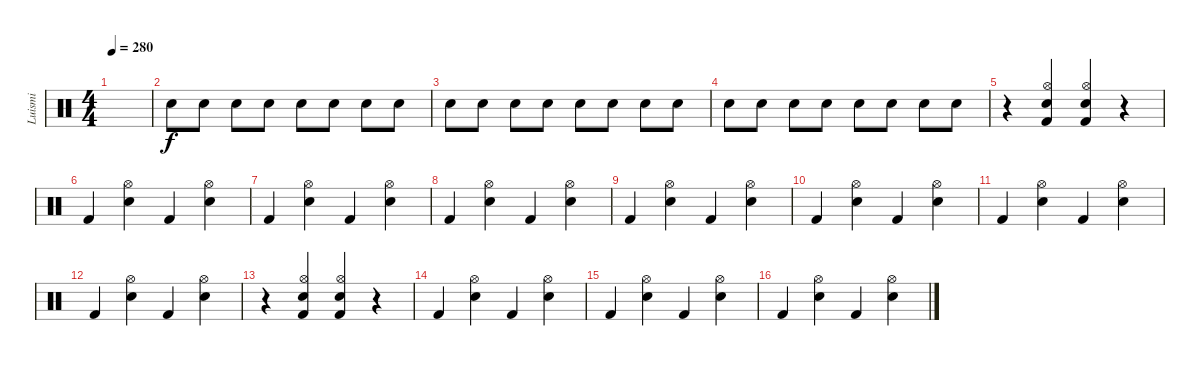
\track ("Luismi" "Luismi") {instrument percussion}
\staff {score}
\articulation defaults
\ts (4 4)
\tempo 280
\clef neutral
\ks c
|
"Snare (hit) 2".8{volume 16} "Snare (hit) 2".8 "Snare (hit) 2".8 "Snare (hit) 2".8 "Snare (hit) 2".8 "Snare (hit) 2".8 "Snare (hit) 2".8 "Snare (hit) 2".8 |
"Snare (hit) 2".8 "Snare (hit) 2".8 "Snare (hit) 2".8 "Snare (hit) 2".8 "Snare (hit) 2".8 "Snare (hit) 2".8 "Snare (hit) 2".8 "Snare (hit) 2".8 |
"Snare (hit) 2".8 "Snare (hit) 2".8 "Snare (hit) 2".8 "Snare (hit) 2".8 "Snare (hit) 2".8 "Snare (hit) 2".8 "Snare (hit) 2".8 "Snare (hit) 2".8 |
r.4 ("Hi-Hat (open)" "Snare (hit) 2" "Kick (hit) 2").4 ("Hi-Hat (open)" "Snare (hit) 2" "Kick (hit) 2").4 r.4 |
"Kick (hit) 2".4 ("Hi-Hat (open)" "Snare (hit) 2").4 "Kick (hit) 2".4 ("Hi-Hat (open)" "Snare (hit) 2").4 |
"Kick (hit) 2".4 ("Hi-Hat (open)" "Snare (hit) 2").4 "Kick (hit) 2".4 ("Hi-Hat (open)" "Snare (hit) 2").4 |
"Kick (hit) 2".4 ("Hi-Hat (open)" "Snare (hit) 2").4 "Kick (hit) 2".4 ("Hi-Hat (open)" "Snare (hit) 2").4 |
"Kick (hit) 2".4 ("Hi-Hat (open)" "Snare (hit) 2").4 "Kick (hit) 2".4 ("Hi-Hat (open)" "Snare (hit) 2").4 |
"Kick (hit) 2".4 ("Hi-Hat (open)" "Snare (hit) 2").4 "Kick (hit) 2".4 ("Hi-Hat (open)" "Snare (hit) 2").4 |
"Kick (hit) 2".4 ("Hi-Hat (open)" "Snare (hit) 2").4 "Kick (hit) 2".4 ("Hi-Hat (open)" "Snare (hit) 2").4 |
"Kick (hit) 2".4 ("Hi-Hat (open)" "Snare (hit) 2").4 "Kick (hit) 2".4 ("Hi-Hat (open)" "Snare (hit) 2").4 |
r.4 ("Hi-Hat (open)" "Snare (hit) 2" "Kick (hit) 2").4 ("Hi-Hat (open)" "Snare (hit) 2" "Kick (hit) 2").4 r.4 |
"Kick (hit) 2".4 ("Hi-Hat (open)" "Snare (hit) 2").4 "Kick (hit) 2".4 ("Hi-Hat (open)" "Snare (hit) 2").4 |
"Kick (hit) 2".4 ("Hi-Hat (open)" "Snare (hit) 2").4 "Kick (hit) 2".4 ("Hi-Hat (open)" "Snare (hit) 2").4 |
"Kick (hit) 2".4 ("Hi-Hat (open)" "Snare (hit) 2").4 "Kick (hit) 2".4 ("Hi-Hat (open)" "Snare (hit) 2").4
